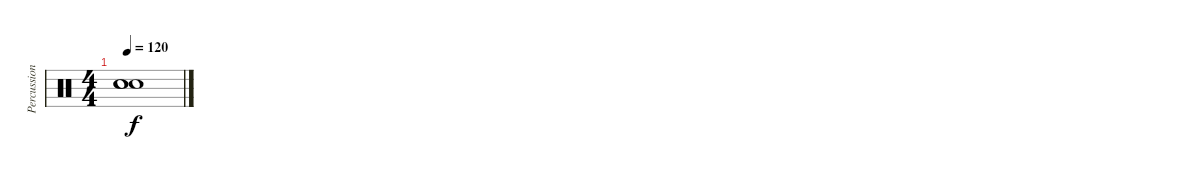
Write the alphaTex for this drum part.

\track ("Percussion" "Percussion") {instrument percussion}
\staff {score}
\articulation defaults
\ts (4 4)
\tempo 120
\clef neutral
\ks c
("Snare (hit)"{t} "Snare (hit)"{t} "Snare (hit)"{t}).1{dy f}
